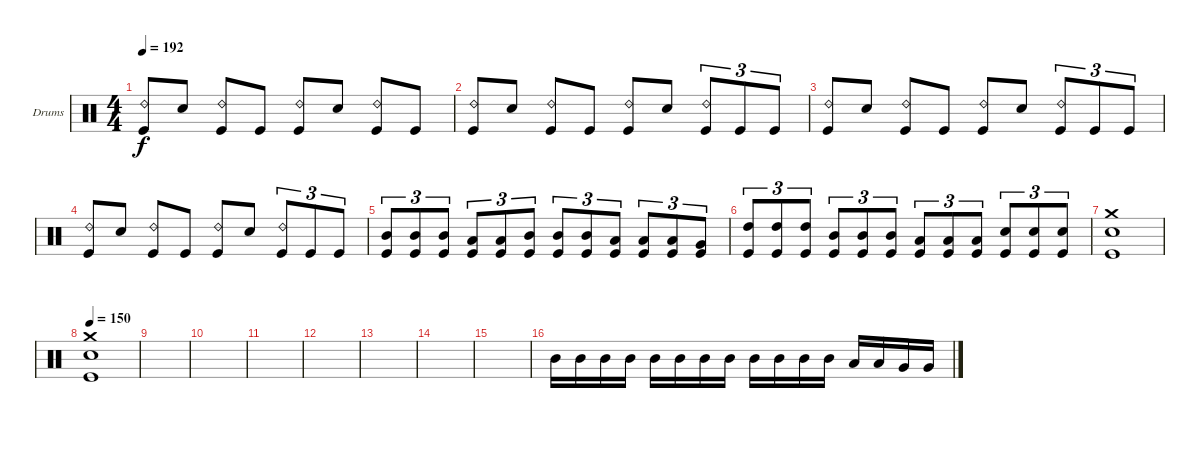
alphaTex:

\defaultSystemsLayout 4
\bracketExtendMode groupsimilarinstruments
\firstSystemTrackNameOrientation horizontal
\otherSystemsTrackNameOrientation horizontal
\track ("Drumkit" "Drums") {instrument percussion}
\staff {score}
\articulation defaults
\ts (4 4)
\tempo 192
\clef neutral
\ks c
("Kick (hit)" "Ride (bell) 2").8{dy f} "Snare (hit) 2".8 ("Kick (hit)" "Ride (bell) 2").8 "Kick (hit)".8 ("Kick (hit)" "Ride (bell) 2").8 "Snare (hit) 2".8 ("Kick (hit)" "Ride (bell) 2").8 "Kick (hit)".8 |
("Kick (hit)" "Ride (bell) 2").8 "Snare (hit) 2".8 ("Kick (hit)" "Ride (bell) 2").8 "Kick (hit)".8 ("Kick (hit)" "Ride (bell) 2").8 "Snare (hit) 2".8 ("Kick (hit)" "Ride (bell) 2").8{tu (3 2)} "Kick (hit)".8{tu (3 2)} "Kick (hit)".8{tu (3 2)} |
("Kick (hit)" "Ride (bell) 2").8 "Snare (hit) 2".8 ("Kick (hit)" "Ride (bell) 2").8 "Kick (hit)".8 ("Kick (hit)" "Ride (bell) 2").8 "Snare (hit) 2".8 ("Kick (hit)" "Ride (bell) 2").8{tu (3 2)} "Kick (hit)".8{tu (3 2)} "Kick (hit)".8{tu (3 2)} |
("Kick (hit)" "Ride (bell) 2").8 "Snare (hit) 2".8 ("Kick (hit)" "Ride (bell) 2").8 "Kick (hit)".8 ("Kick (hit)" "Ride (bell) 2").8 "Snare (hit) 2".8 ("Kick (hit)" "Ride (bell) 2").8{tu (3 2)} "Kick (hit)".8{tu (3 2)} "Kick (hit)".8{tu (3 2)} |
("Mid Tom (hit)" "Kick (hit)").8{tu (3 2)} ("Mid Tom (hit)" "Kick (hit)").8{tu (3 2)} ("Mid Tom (hit)" "Kick (hit)").8{tu (3 2)} ("Low Tom (hit)" "Kick (hit)").8{tu (3 2)} ("Low Tom (hit)" "Kick (hit)").8{tu (3 2)} ("Mid Tom (hit)" "Kick (hit)").8{tu (3 2)} ("Mid Tom (hit)" "Kick (hit)").8{tu (3 2)} ("Mid Tom (hit)" "Kick (hit)").8{tu (3 2)} ("Low Tom (hit)" "Kick (hit)").8{tu (3 2)} ("Low Tom (hit)" "Kick (hit)").8{tu (3 2)} ("Low Tom (hit)" "Kick (hit)").8{tu (3 2)} ("Very Low Tom (hit)" "Kick (hit)").8{tu (3 2)} |
("Kick (hit)" "High Tom (hit)").8{tu (3 2)} ("Kick (hit)" "High Tom (hit)").8{tu (3 2)} ("Kick (hit)" "High Tom (hit)").8{tu (3 2)} ("Kick (hit)" "Mid Tom (hit)").8{tu (3 2)} ("Kick (hit)" "Mid Tom (hit)").8{tu (3 2)} ("Kick (hit)" "Mid Tom (hit)").8{tu (3 2)} ("Kick (hit)" "Low Tom (hit)").8{tu (3 2)} ("Kick (hit)" "Low Tom (hit)").8{tu (3 2)} ("Kick (hit)" "Low Tom (hit)").8{tu (3 2)} ("Kick (hit)" "Snare (hit) 2").8{tu (3 2)} ("Kick (hit)" "Snare (hit) 2").8{tu (3 2)} ("Kick (hit)" "Snare (hit) 2").8{tu (3 2)} |
("Snare (hit) 2" "Crash medium (hit)" "Kick (hit)").1 |
\tempo 150
("Crash medium (hit)" "Kick (hit)" "Snare (hit) 2").1 |
|
|
|
|
|
|
|
"Mid Tom (hit)".16 "Mid Tom (hit)".16 "Mid Tom (hit)".16 "Mid Tom (hit)".16 "Mid Tom (hit)".16 "Mid Tom (hit)".16 "Mid Tom (hit)".16 "Mid Tom (hit)".16 "Mid Tom (hit)".16 "Mid Tom (hit)".16 "Mid Tom (hit)".16 "Mid Tom (hit)".16 "Low Tom (hit)".16 "Low Tom (hit)".16 "Very Low Tom (hit)".16 "Very Low Tom (hit)".16
